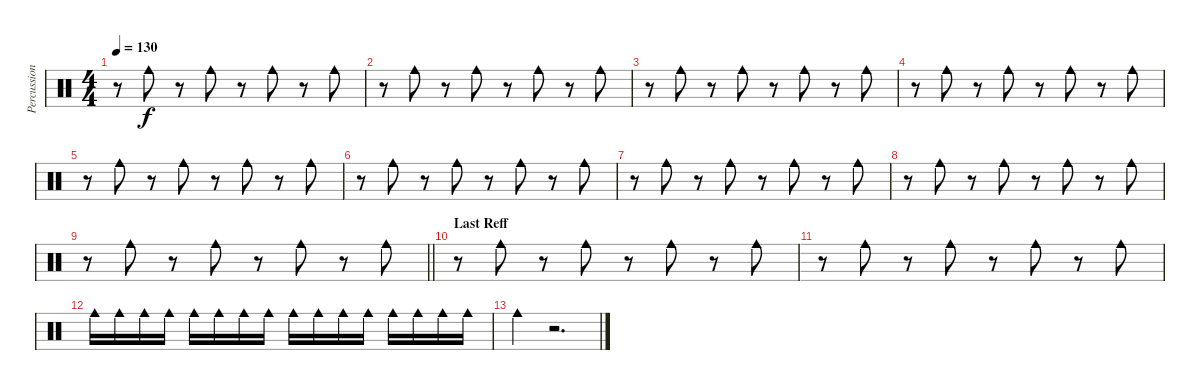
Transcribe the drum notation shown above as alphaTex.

\track ("Percussion 2" "Percussion") {instrument percussion}
\staff {score}
\articulation defaults
\ts (4 4)
\tempo 130
\clef neutral
\ks c
r.8{dy f} "Cowbell medium (hit)".8 r.8 "Cowbell medium (hit)".8 r.8 "Cowbell medium (hit)".8 r.8 "Cowbell medium (hit)".8 |
r.8 "Cowbell medium (hit)".8 r.8 "Cowbell medium (hit)".8 r.8 "Cowbell medium (hit)".8 r.8 "Cowbell medium (hit)".8 |
r.8 "Cowbell medium (hit)".8 r.8 "Cowbell medium (hit)".8 r.8 "Cowbell medium (hit)".8 r.8 "Cowbell medium (hit)".8 |
r.8 "Cowbell medium (hit)".8 r.8 "Cowbell medium (hit)".8 r.8 "Cowbell medium (hit)".8 r.8 "Cowbell medium (hit)".8 |
r.8 "Cowbell medium (hit)".8 r.8 "Cowbell medium (hit)".8 r.8 "Cowbell medium (hit)".8 r.8 "Cowbell medium (hit)".8 |
r.8 "Cowbell medium (hit)".8 r.8 "Cowbell medium (hit)".8 r.8 "Cowbell medium (hit)".8 r.8 "Cowbell medium (hit)".8 |
r.8 "Cowbell medium (hit)".8 r.8 "Cowbell medium (hit)".8 r.8 "Cowbell medium (hit)".8 r.8 "Cowbell medium (hit)".8 |
r.8 "Cowbell medium (hit)".8 r.8 "Cowbell medium (hit)".8 r.8 "Cowbell medium (hit)".8 r.8 "Cowbell medium (hit)".8 |
\barLineRight lightlight
r.8 "Cowbell medium (hit)".8 r.8 "Cowbell medium (hit)".8 r.8 "Cowbell medium (hit)".8 r.8 "Cowbell medium (hit)".8 |
\section ("" "Last Reff")
r.8 "Cowbell medium (hit)".8 r.8 "Cowbell medium (hit)".8 r.8 "Cowbell medium (hit)".8 r.8 "Cowbell medium (hit)".8 |
r.8 "Cowbell medium (hit)".8 r.8 "Cowbell medium (hit)".8 r.8 "Cowbell medium (hit)".8 r.8 "Cowbell medium (hit)".8 |
"Cowbell medium (hit)".16 "Cowbell medium (hit)".16 "Cowbell medium (hit)".16 "Cowbell medium (hit)".16 "Cowbell medium (hit)".16 "Cowbell medium (hit)".16 "Cowbell medium (hit)".16 "Cowbell medium (hit)".16 "Cowbell medium (hit)".16 "Cowbell medium (hit)".16 "Cowbell medium (hit)".16 "Cowbell medium (hit)".16 "Cowbell medium (hit)".16 "Cowbell medium (hit)".16 "Cowbell medium (hit)".16 "Cowbell medium (hit)".16 |
"Cowbell medium (hit)".4 r.2{d}
